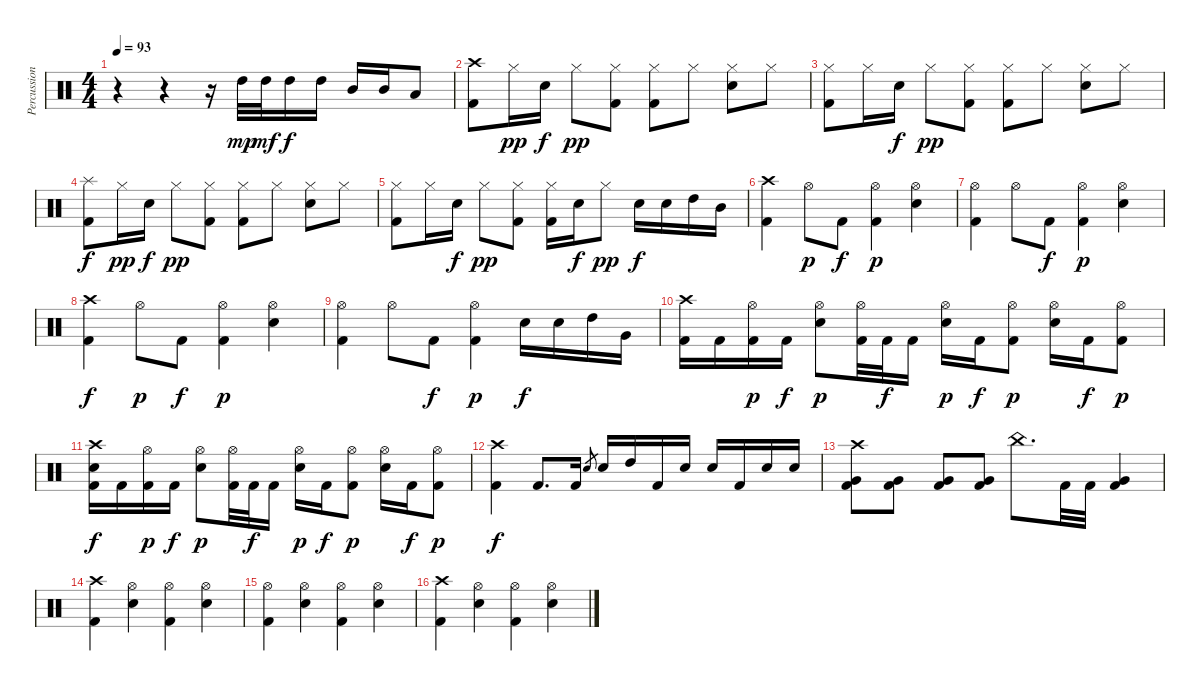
\track ("Percussions" "Percussion") {instrument percussion}
\staff {score}
\articulation defaults
\ts (4 4)
\tempo 93
\clef neutral
\ks c
r.4{dy f} r.4 r.16 "High Tom (hit)".32{dy mp} "High Tom (hit)".32{dy mf} "High Tom (hit)".16{dy f} "High Tom (hit)".16 "Mid Tom (hit)".16 "Mid Tom (hit)".16 "Low Tom (hit)".8 |
("Crash high (hit)" "Kick (hit) 2").8 "Hi-Hat (closed)".16{dy pp} "Electric Snare (hit)".16{dy f} "Hi-Hat (closed)".8{dy pp} ("Hi-Hat (closed)" "Kick (hit) 2").8 ("Hi-Hat (closed)" "Kick (hit) 2").8 "Hi-Hat (closed)".8 ("Hi-Hat (closed)" "Electric Snare (hit)").8 "Hi-Hat (closed)".8 |
("Hi-Hat (closed)" "Kick (hit) 2").8 "Hi-Hat (closed)".16 "Electric Snare (hit)".16{dy f} "Hi-Hat (closed)".8{dy pp} ("Hi-Hat (closed)" "Kick (hit) 2").8 ("Hi-Hat (closed)" "Kick (hit) 2").8 "Hi-Hat (closed)".8 ("Hi-Hat (closed)" "Electric Snare (hit)").8 "Hi-Hat (closed)".8 |
("Splash (hit)" "Kick (hit) 2").8{dy f} "Hi-Hat (closed)".16{dy pp} "Electric Snare (hit)".16{dy f} "Hi-Hat (closed)".8{dy pp} ("Hi-Hat (closed)" "Kick (hit) 2").8 ("Hi-Hat (closed)" "Kick (hit) 2").8 "Hi-Hat (closed)".8 ("Hi-Hat (closed)" "Electric Snare (hit)").8 "Hi-Hat (closed)".8 |
("Hi-Hat (closed)" "Kick (hit) 2").8 "Hi-Hat (closed)".16 "Electric Snare (hit)".16{dy f} "Hi-Hat (closed)".8{dy pp} ("Hi-Hat (closed)" "Kick (hit) 2").8 ("Hi-Hat (closed)" "Kick (hit) 2").16 "Electric Snare (hit)".16{dy f} "Hi-Hat (closed)".8{dy pp} "Electric Snare (hit)".16{dy f} "Electric Snare (hit)".16 "High Tom (hit)".16 "Mid Tom (hit)".16 |
("Crash high (hit)" "Kick (hit) 2").4 "Hi-Hat (open)".8{dy p} "Kick (hit) 2".8{dy f} ("Hi-Hat (open)" "Kick (hit) 2").4{dy p} ("Hi-Hat (open)" "Electric Snare (hit)").4 |
("Hi-Hat (open)" "Kick (hit) 2").4 "Hi-Hat (open)".8 "Kick (hit) 2".8{dy f} ("Hi-Hat (open)" "Kick (hit) 2").4{dy p} ("Hi-Hat (open)" "Electric Snare (hit)").4 |
("Crash high (hit)" "Kick (hit) 2").4{dy f} "Hi-Hat (open)".8{dy p} "Kick (hit) 2".8{dy f} ("Hi-Hat (open)" "Kick (hit) 2").4{dy p} ("Hi-Hat (open)" "Electric Snare (hit)").4 |
("Hi-Hat (open)" "Kick (hit) 2").4 "Hi-Hat (open)".8 "Kick (hit) 2".8{dy f} ("Hi-Hat (open)" "Kick (hit) 2").4{dy p} "Electric Snare (hit)".16{dy f} "Electric Snare (hit)".16 "High Tom (hit)".16 "Very Low Tom (hit)".16 |
("Crash high (hit)" "Kick (hit) 2").16 "Kick (hit) 2".16 ("Hi-Hat (open)" "Kick (hit) 2").16{dy p} "Kick (hit) 2".16{dy f} ("Hi-Hat (open)" "Electric Snare (hit)").8{dy p} ("Hi-Hat (open)" "Kick (hit) 2").32 "Kick (hit) 2".32{dy f} "Kick (hit) 2".16 ("Hi-Hat (open)" "Electric Snare (hit)").16{dy p} "Kick (hit) 2".16{dy f} ("Hi-Hat (open)" "Kick (hit) 2").8{dy p} ("Hi-Hat (open)" "Electric Snare (hit)").16 "Kick (hit) 2".16{dy f} ("Hi-Hat (open)" "Kick (hit) 2").8{dy p} |
("Crash high (hit)" "Electric Snare (hit)" "Kick (hit) 2").16{dy f} "Kick (hit) 2".16 ("Hi-Hat (open)" "Kick (hit) 2").16{dy p} "Kick (hit) 2".16{dy f} ("Hi-Hat (open)" "Electric Snare (hit)").8{dy p} ("Hi-Hat (open)" "Kick (hit) 2").32 "Kick (hit) 2".32{dy f} "Kick (hit) 2".16 ("Hi-Hat (open)" "Electric Snare (hit)").16{dy p} "Kick (hit) 2".16{dy f} ("Hi-Hat (open)" "Kick (hit) 2").8{dy p} ("Hi-Hat (open)" "Electric Snare (hit)").16 "Kick (hit) 2".16{dy f} ("Hi-Hat (open)" "Kick (hit) 2").8{dy p} |
("Crash high (hit)" "Kick (hit) 2").4{dy f} "Kick (hit) 2".8{d} "Kick (hit) 2".16 "Electric Snare (hit)".8{gr} "Electric Snare (hit)".16 "High Tom (hit)".16 "Kick (hit) 2".16 "Electric Snare (hit)".16 "Electric Snare (hit)".16 "Kick (hit) 2".16 "Electric Snare (hit)".16 "Electric Snare (hit)".16 |
("Crash high (hit)" "Very Low Tom (hit)" "Kick (hit) 2").8 ("Very Low Tom (hit)" "Kick (hit) 2").8 ("Very Low Tom (hit)" "Kick (hit) 2").8 ("Very Low Tom (hit)" "Kick (hit) 2").8 "China (hit)".8{d} "Kick (hit) 2".32 "Kick (hit) 2".32 ("Very Low Tom (hit)" "Kick (hit) 2").4 |
("Crash high (hit)" "Kick (hit) 2").4 ("Hi-Hat (open)" "Electric Snare (hit)").4 ("Hi-Hat (open)" "Kick (hit) 2").4 ("Hi-Hat (open)" "Electric Snare (hit)").4 |
("Hi-Hat (open)" "Kick (hit) 2").4 ("Hi-Hat (open)" "Electric Snare (hit)").4 ("Hi-Hat (open)" "Kick (hit) 2").4 ("Hi-Hat (open)" "Electric Snare (hit)").4 |
("Crash high (hit)" "Kick (hit) 2").4 ("Hi-Hat (open)" "Electric Snare (hit)").4 ("Hi-Hat (open)" "Kick (hit) 2").4 ("Hi-Hat (open)" "Electric Snare (hit)").4
